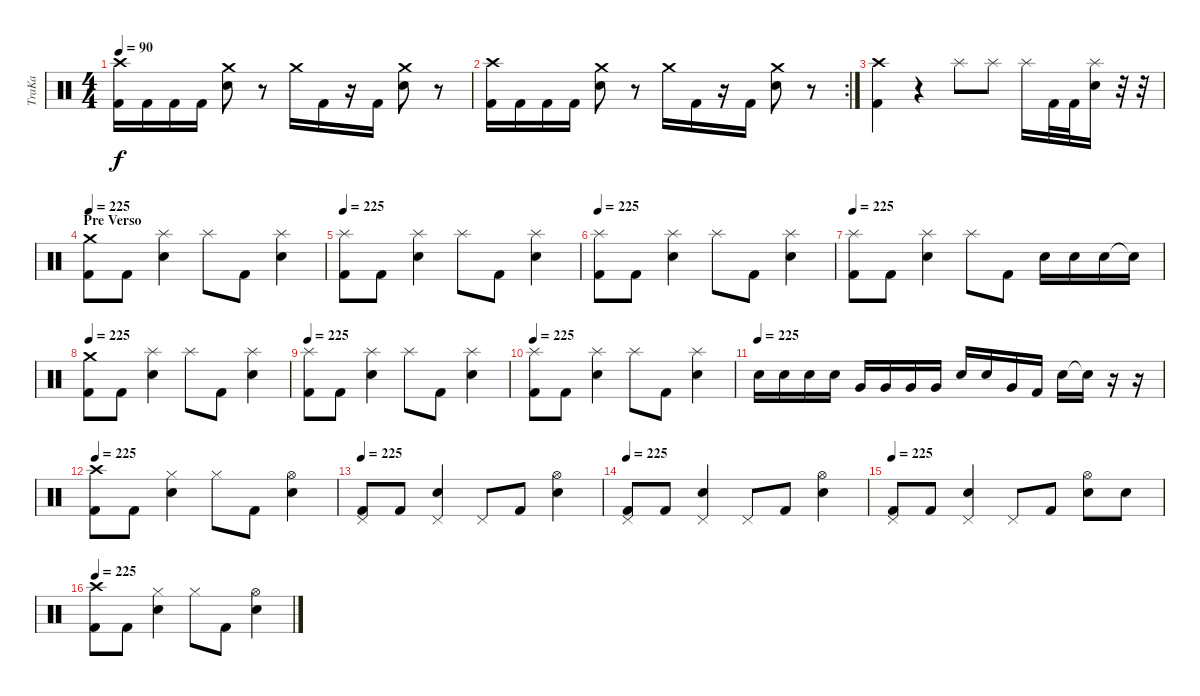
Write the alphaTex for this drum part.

\track ("TraKa" "TraKa") {instrument percussion}
\staff {score}
\articulation defaults
\ts (4 4)
\tempo 90
\clef neutral
\ks c
("Crash high (hit)" "Kick (hit) 2").16{dy f} "Kick (hit) 2".16 "Kick (hit) 2".16 "Kick (hit) 2".16 ("Crash medium (hit)" "Electric Snare (hit)").8 r.8 "Crash medium (hit)".16 "Kick (hit) 2".16 r.16 "Kick (hit) 2".16 ("Crash medium (hit)" "Electric Snare (hit)").8 r.8 |
\rc 2
("Crash high (hit)" "Kick (hit) 2").16 "Kick (hit) 2".16 "Kick (hit) 2".16 "Kick (hit) 2".16 ("Crash medium (hit)" "Electric Snare (hit)").8 r.8 "Crash medium (hit)".16 "Kick (hit) 2".16 r.16 "Kick (hit) 2".16 ("Crash medium (hit)" "Electric Snare (hit)").8 r.8 |
("Crash high (hit)" "Kick (hit) 2").4 r.4 "Splash (hit)".8 "Splash (hit)".8 "Splash (hit)".16 "Kick (hit) 2".32 "Kick (hit) 2".32 ("Splash (hit)" "Electric Snare (hit)").16 r.32 r.32 |
\section ("" "Pre Verso")
\tempo 225
("Crash medium (hit)" "Kick (hit) 2").8 "Kick (hit) 2".8 ("Splash (hit)" "Electric Snare (hit)").4 "Splash (hit)".8 "Kick (hit) 2".8 ("Splash (hit)" "Electric Snare (hit)").4 |
\tempo 225
("Splash (hit)" "Kick (hit) 2").8 "Kick (hit) 2".8 ("Splash (hit)" "Electric Snare (hit)").4 "Splash (hit)".8 "Kick (hit) 2".8 ("Splash (hit)" "Electric Snare (hit)").4 |
\tempo 225
("Splash (hit)" "Kick (hit) 2").8 "Kick (hit) 2".8 ("Splash (hit)" "Electric Snare (hit)").4 "Splash (hit)".8 "Kick (hit) 2".8 ("Splash (hit)" "Electric Snare (hit)").4 |
\tempo 225
("Splash (hit)" "Kick (hit) 2").8 "Kick (hit) 2".8 ("Splash (hit)" "Electric Snare (hit)").4 "Splash (hit)".8 "Kick (hit) 2".8 "Electric Snare (hit)".16 "Electric Snare (hit)".16 "Electric Snare (hit)".16 "Snare (hit)"{t}.16 |
\tempo 225
("Crash medium (hit)" "Kick (hit) 2").8 "Kick (hit) 2".8 ("Splash (hit)" "Electric Snare (hit)").4 "Splash (hit)".8 "Kick (hit) 2".8 ("Splash (hit)" "Electric Snare (hit)").4 |
\tempo 225
("Splash (hit)" "Kick (hit) 2").8 "Kick (hit) 2".8 ("Splash (hit)" "Electric Snare (hit)").4 "Splash (hit)".8 "Kick (hit) 2".8 ("Splash (hit)" "Electric Snare (hit)").4 |
\tempo 225
("Splash (hit)" "Kick (hit) 2").8 "Kick (hit) 2".8 ("Splash (hit)" "Electric Snare (hit)").4 "Splash (hit)".8 "Kick (hit) 2".8 ("Splash (hit)" "Electric Snare (hit)").4 |
\tempo (225)
"Electric Snare (hit)".16 "Electric Snare (hit)".16 "Electric Snare (hit)".16 "Electric Snare (hit)".16 "Very Low Tom (hit)".16 "Very Low Tom (hit)".16 "Very Low Tom (hit)".16 "Very Low Tom (hit)".16 "Electric Snare (hit)".16 "Electric Snare (hit)".16 "Very Low Tom (hit)".16 "Kick (hit) 2".16 "Electric Snare (hit)".16 "Electric Snare (hit)"{t}.16 r.16 r.16 |
\tempo 225
("Crash high (hit)" "Kick (hit) 2").8 "Kick (hit) 2".8 ("Hi-Hat (closed)" "Electric Snare (hit)").4 "Hi-Hat (closed)".8 "Kick (hit) 2".8 ("Hi-Hat (open)" "Electric Snare (hit)").4 |
\tempo 225
("Pedal Hi-Hat (hit)" "Kick (hit) 2").8 "Kick (hit) 2".8 ("Pedal Hi-Hat (hit)" "Electric Snare (hit)").4 "Pedal Hi-Hat (hit)".8 "Kick (hit) 2".8 ("Hi-Hat (open)" "Electric Snare (hit)").4 |
\tempo 225
("Pedal Hi-Hat (hit)" "Kick (hit) 2").8 "Kick (hit) 2".8 ("Pedal Hi-Hat (hit)" "Electric Snare (hit)").4 "Pedal Hi-Hat (hit)".8 "Kick (hit) 2".8 ("Hi-Hat (open)" "Electric Snare (hit)").4 |
\tempo 225
("Pedal Hi-Hat (hit)" "Kick (hit) 2").8 "Kick (hit) 2".8 ("Pedal Hi-Hat (hit)" "Electric Snare (hit)").4 "Pedal Hi-Hat (hit)".8 "Kick (hit) 2".8 ("Hi-Hat (open)" "Electric Snare (hit)").8 "Electric Snare (hit)".8 |
\tempo 225
("Crash high (hit)" "Kick (hit) 2").8 "Kick (hit) 2".8 ("Hi-Hat (closed)" "Electric Snare (hit)").4 "Hi-Hat (closed)".8 "Kick (hit) 2".8 ("Hi-Hat (open)" "Electric Snare (hit)").4
